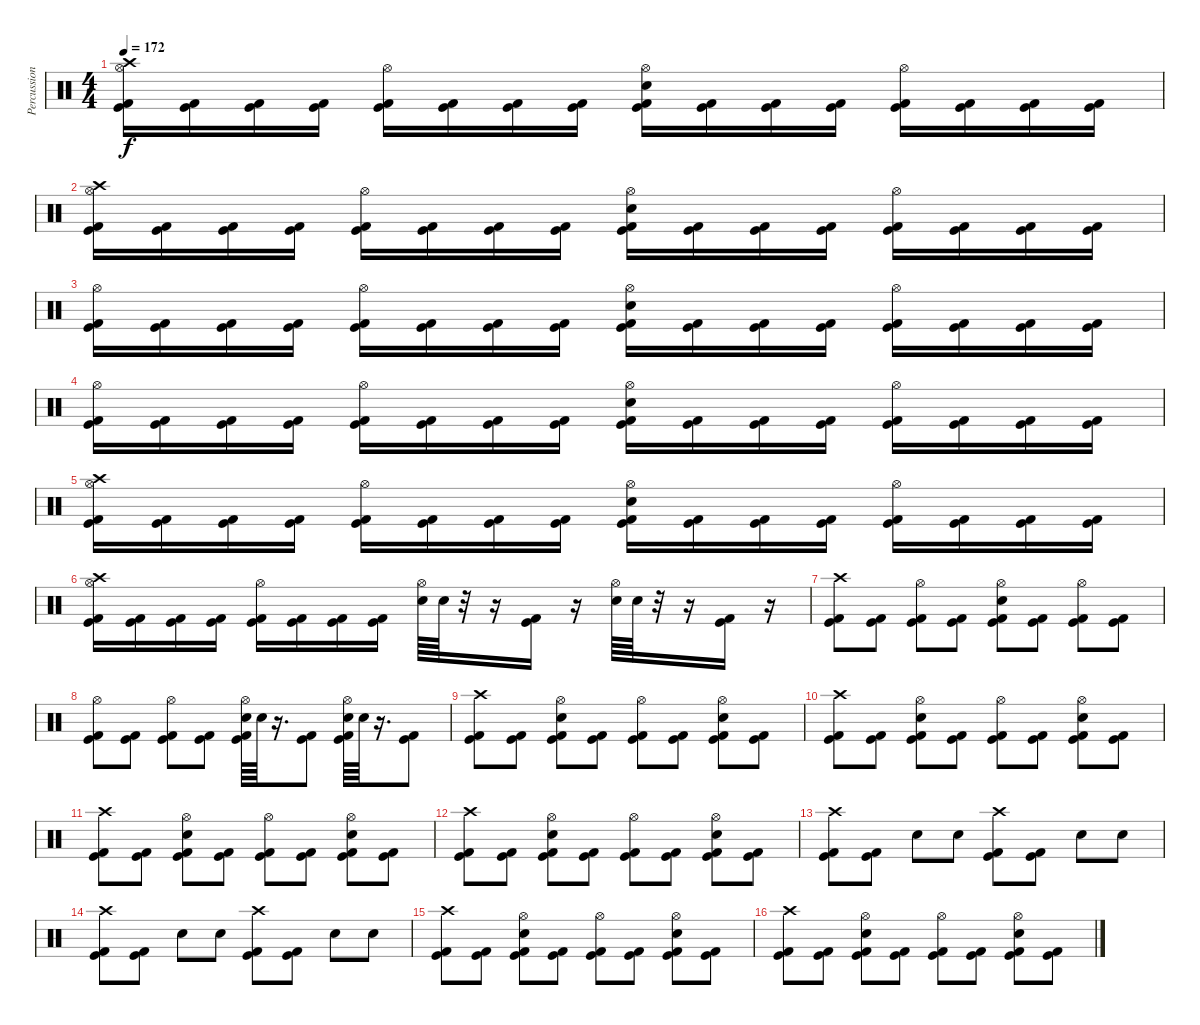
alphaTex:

\track ("Percussion" "Percussion") {instrument percussion}
\staff {score}
\articulation defaults
\ts (4 4)
\tempo 172
\clef neutral
\ks c
("Hi-Hat (open)" "Crash high (hit)" "Kick (hit)" "Kick (hit) 2").16{dy f} ("Kick (hit)" "Kick (hit) 2").16 ("Kick (hit)" "Kick (hit) 2").16 ("Kick (hit)" "Kick (hit) 2").16 ("Hi-Hat (open)" "Kick (hit)" "Kick (hit) 2").16 ("Kick (hit)" "Kick (hit) 2").16 ("Kick (hit)" "Kick (hit) 2").16 ("Kick (hit)" "Kick (hit) 2").16 ("Hi-Hat (open)" "Snare (hit) 2" "Kick (hit)" "Kick (hit) 2").16 ("Kick (hit)" "Kick (hit) 2").16 ("Kick (hit)" "Kick (hit) 2").16 ("Kick (hit)" "Kick (hit) 2").16 ("Hi-Hat (open)" "Kick (hit)" "Kick (hit) 2").16 ("Kick (hit)" "Kick (hit) 2").16 ("Kick (hit)" "Kick (hit) 2").16 ("Kick (hit)" "Kick (hit) 2").16 |
("Hi-Hat (open)" "Crash high (hit)" "Kick (hit)" "Kick (hit) 2").16 ("Kick (hit)" "Kick (hit) 2").16 ("Kick (hit)" "Kick (hit) 2").16 ("Kick (hit)" "Kick (hit) 2").16 ("Hi-Hat (open)" "Kick (hit)" "Kick (hit) 2").16 ("Kick (hit)" "Kick (hit) 2").16 ("Kick (hit)" "Kick (hit) 2").16 ("Kick (hit)" "Kick (hit) 2").16 ("Hi-Hat (open)" "Snare (hit) 2" "Kick (hit)" "Kick (hit) 2").16 ("Kick (hit)" "Kick (hit) 2").16 ("Kick (hit)" "Kick (hit) 2").16 ("Kick (hit)" "Kick (hit) 2").16 ("Hi-Hat (open)" "Kick (hit)" "Kick (hit) 2").16 ("Kick (hit)" "Kick (hit) 2").16 ("Kick (hit)" "Kick (hit) 2").16 ("Kick (hit)" "Kick (hit) 2").16 |
("Hi-Hat (open)" "Kick (hit)" "Kick (hit) 2").16 ("Kick (hit)" "Kick (hit) 2").16 ("Kick (hit)" "Kick (hit) 2").16 ("Kick (hit)" "Kick (hit) 2").16 ("Hi-Hat (open)" "Kick (hit)" "Kick (hit) 2").16 ("Kick (hit)" "Kick (hit) 2").16 ("Kick (hit)" "Kick (hit) 2").16 ("Kick (hit)" "Kick (hit) 2").16 ("Hi-Hat (open)" "Snare (hit) 2" "Kick (hit)" "Kick (hit) 2").16 ("Kick (hit)" "Kick (hit) 2").16 ("Kick (hit)" "Kick (hit) 2").16 ("Kick (hit)" "Kick (hit) 2").16 ("Hi-Hat (open)" "Kick (hit)" "Kick (hit) 2").16 ("Kick (hit)" "Kick (hit) 2").16 ("Kick (hit)" "Kick (hit) 2").16 ("Kick (hit)" "Kick (hit) 2").16 |
("Hi-Hat (open)" "Kick (hit)" "Kick (hit) 2").16 ("Kick (hit)" "Kick (hit) 2").16 ("Kick (hit)" "Kick (hit) 2").16 ("Kick (hit)" "Kick (hit) 2").16 ("Hi-Hat (open)" "Kick (hit)" "Kick (hit) 2").16 ("Kick (hit)" "Kick (hit) 2").16 ("Kick (hit)" "Kick (hit) 2").16 ("Kick (hit)" "Kick (hit) 2").16 ("Hi-Hat (open)" "Snare (hit) 2" "Kick (hit)" "Kick (hit) 2").16 ("Kick (hit)" "Kick (hit) 2").16 ("Kick (hit)" "Kick (hit) 2").16 ("Kick (hit)" "Kick (hit) 2").16 ("Hi-Hat (open)" "Kick (hit)" "Kick (hit) 2").16 ("Kick (hit)" "Kick (hit) 2").16 ("Kick (hit)" "Kick (hit) 2").16 ("Kick (hit)" "Kick (hit) 2").16 |
("Hi-Hat (open)" "Crash high (hit)" "Kick (hit)" "Kick (hit) 2").16 ("Kick (hit)" "Kick (hit) 2").16 ("Kick (hit)" "Kick (hit) 2").16 ("Kick (hit)" "Kick (hit) 2").16 ("Hi-Hat (open)" "Kick (hit)" "Kick (hit) 2").16 ("Kick (hit)" "Kick (hit) 2").16 ("Kick (hit)" "Kick (hit) 2").16 ("Kick (hit)" "Kick (hit) 2").16 ("Hi-Hat (open)" "Snare (hit) 2" "Kick (hit)" "Kick (hit) 2").16 ("Kick (hit)" "Kick (hit) 2").16 ("Kick (hit)" "Kick (hit) 2").16 ("Kick (hit)" "Kick (hit) 2").16 ("Hi-Hat (open)" "Kick (hit)" "Kick (hit) 2").16 ("Kick (hit)" "Kick (hit) 2").16 ("Kick (hit)" "Kick (hit) 2").16 ("Kick (hit)" "Kick (hit) 2").16 |
("Hi-Hat (open)" "Crash high (hit)" "Kick (hit)" "Kick (hit) 2").16 ("Kick (hit)" "Kick (hit) 2").16 ("Kick (hit)" "Kick (hit) 2").16 ("Kick (hit)" "Kick (hit) 2").16 ("Hi-Hat (open)" "Kick (hit)" "Kick (hit) 2").16 ("Kick (hit)" "Kick (hit) 2").16 ("Kick (hit)" "Kick (hit) 2").16 ("Kick (hit)" "Kick (hit) 2").16 ("Hi-Hat (open)" "Snare (hit) 2").64 "Snare (hit) 2".64 r.32 r.16 ("Kick (hit)" "Kick (hit) 2").16 r.16 ("Hi-Hat (open)" "Snare (hit) 2").64 "Snare (hit) 2".64 r.32 r.16 ("Kick (hit)" "Kick (hit) 2").16 r.16 |
("Crash high (hit)" "Kick (hit)" "Kick (hit) 2").8 ("Kick (hit)" "Kick (hit) 2").8 ("Hi-Hat (open)" "Kick (hit)" "Kick (hit) 2").8 ("Kick (hit)" "Kick (hit) 2").8 ("Hi-Hat (open)" "Snare (hit) 2" "Kick (hit)" "Kick (hit) 2").8 ("Kick (hit)" "Kick (hit) 2").8 ("Hi-Hat (open)" "Kick (hit)" "Kick (hit) 2").8 ("Kick (hit)" "Kick (hit) 2").8 |
("Hi-Hat (open)" "Kick (hit)" "Kick (hit) 2").8 ("Kick (hit)" "Kick (hit) 2").8 ("Hi-Hat (open)" "Kick (hit)" "Kick (hit) 2").8 ("Kick (hit)" "Kick (hit) 2").8 ("Hi-Hat (open)" "Snare (hit) 2" "Kick (hit)" "Kick (hit) 2").64 "Snare (hit) 2".64 r.16{d} ("Kick (hit)" "Kick (hit) 2").8 ("Hi-Hat (open)" "Snare (hit) 2" "Kick (hit)" "Kick (hit) 2").64 "Snare (hit) 2".64 r.16{d} ("Kick (hit)" "Kick (hit) 2").8 |
("Crash high (hit)" "Kick (hit)" "Kick (hit) 2").8 ("Kick (hit)" "Kick (hit) 2").8 ("Hi-Hat (open)" "Snare (hit) 2" "Kick (hit)" "Kick (hit) 2").8 ("Kick (hit)" "Kick (hit) 2").8 ("Hi-Hat (open)" "Kick (hit)" "Kick (hit) 2").8 ("Kick (hit)" "Kick (hit) 2").8 ("Hi-Hat (open)" "Snare (hit) 2" "Kick (hit)" "Kick (hit) 2").8 ("Kick (hit)" "Kick (hit) 2").8 |
("Crash high (hit)" "Kick (hit)" "Kick (hit) 2").8 ("Kick (hit)" "Kick (hit) 2").8 ("Hi-Hat (open)" "Snare (hit) 2" "Kick (hit)" "Kick (hit) 2").8 ("Kick (hit)" "Kick (hit) 2").8 ("Hi-Hat (open)" "Kick (hit)" "Kick (hit) 2").8 ("Kick (hit)" "Kick (hit) 2").8 ("Hi-Hat (open)" "Snare (hit) 2" "Kick (hit)" "Kick (hit) 2").8 ("Kick (hit)" "Kick (hit) 2").8 |
("Crash high (hit)" "Kick (hit)" "Kick (hit) 2").8 ("Kick (hit)" "Kick (hit) 2").8 ("Hi-Hat (open)" "Snare (hit) 2" "Kick (hit)" "Kick (hit) 2").8 ("Kick (hit)" "Kick (hit) 2").8 ("Hi-Hat (open)" "Kick (hit)" "Kick (hit) 2").8 ("Kick (hit)" "Kick (hit) 2").8 ("Hi-Hat (open)" "Snare (hit) 2" "Kick (hit)" "Kick (hit) 2").8 ("Kick (hit)" "Kick (hit) 2").8 |
("Crash high (hit)" "Kick (hit)" "Kick (hit) 2").8 ("Kick (hit)" "Kick (hit) 2").8 ("Hi-Hat (open)" "Snare (hit) 2" "Kick (hit)" "Kick (hit) 2").8 ("Kick (hit)" "Kick (hit) 2").8 ("Hi-Hat (open)" "Kick (hit)" "Kick (hit) 2").8 ("Kick (hit)" "Kick (hit) 2").8 ("Hi-Hat (open)" "Snare (hit) 2" "Kick (hit)" "Kick (hit) 2").8 ("Kick (hit)" "Kick (hit) 2").8 |
("Crash high (hit)" "Kick (hit)" "Kick (hit) 2").8 ("Kick (hit)" "Kick (hit) 2").8 "Snare (hit) 2".8 "Snare (hit) 2".8 ("Crash high (hit)" "Kick (hit)" "Kick (hit) 2").8 ("Kick (hit)" "Kick (hit) 2").8 "Snare (hit) 2".8 "Snare (hit) 2".8 |
("Crash high (hit)" "Kick (hit)" "Kick (hit) 2").8 ("Kick (hit)" "Kick (hit) 2").8 "Snare (hit) 2".8 "Snare (hit) 2".8 ("Crash high (hit)" "Kick (hit)" "Kick (hit) 2").8 ("Kick (hit)" "Kick (hit) 2").8 "Snare (hit) 2".8 "Snare (hit) 2".8 |
("Crash high (hit)" "Kick (hit)" "Kick (hit) 2").8 ("Kick (hit)" "Kick (hit) 2").8 ("Hi-Hat (open)" "Snare (hit) 2" "Kick (hit)" "Kick (hit) 2").8 ("Kick (hit)" "Kick (hit) 2").8 ("Hi-Hat (open)" "Kick (hit)" "Kick (hit) 2").8 ("Kick (hit)" "Kick (hit) 2").8 ("Hi-Hat (open)" "Snare (hit) 2" "Kick (hit)" "Kick (hit) 2").8 ("Kick (hit)" "Kick (hit) 2").8 |
("Crash high (hit)" "Kick (hit)" "Kick (hit) 2").8 ("Kick (hit)" "Kick (hit) 2").8 ("Hi-Hat (open)" "Snare (hit) 2" "Kick (hit)" "Kick (hit) 2").8 ("Kick (hit)" "Kick (hit) 2").8 ("Hi-Hat (open)" "Kick (hit)" "Kick (hit) 2").8 ("Kick (hit)" "Kick (hit) 2").8 ("Hi-Hat (open)" "Snare (hit) 2" "Kick (hit)" "Kick (hit) 2").8 ("Kick (hit)" "Kick (hit) 2").8
